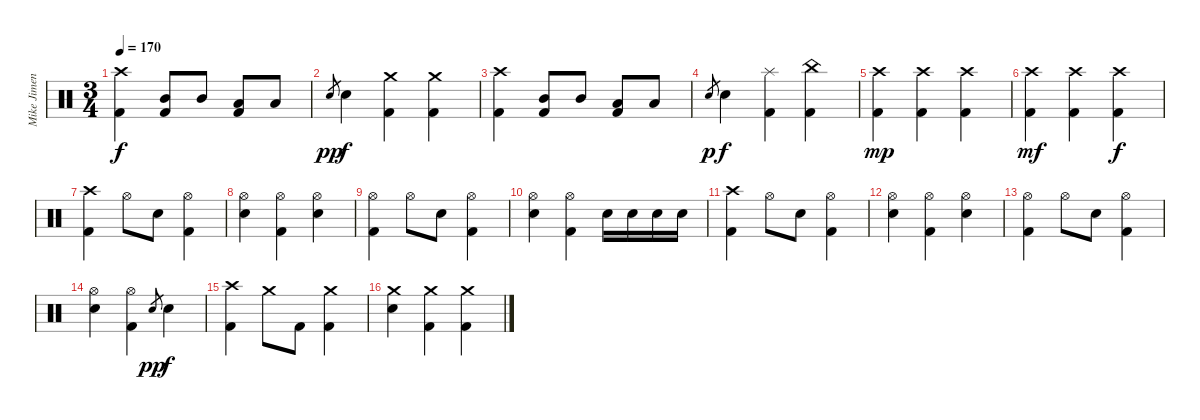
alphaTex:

\track ("Mike Jimenez" "Mike Jimen") {instrument percussion}
\staff {score}
\articulation defaults
\ts (3 4)
\tempo 170
\clef neutral
\ks c
("Crash high (hit)" "Kick (hit) 2").4{dy f} ("Mid Tom (hit)" "Kick (hit) 2").8 "Mid Tom (hit)".8 ("Low Tom (hit)" "Kick (hit) 2").8 "Low Tom (hit)".8 |
"Electric Snare (hit)".8{gr dy pp} "Electric Snare (hit)".4{dy f} ("Crash medium (hit)" "Kick (hit) 2").4 ("Crash medium (hit)" "Kick (hit) 2").4 |
("Crash high (hit)" "Kick (hit) 2").4 ("Mid Tom (hit)" "Kick (hit) 2").8 "Mid Tom (hit)".8 ("Low Tom (hit)" "Kick (hit) 2").8 "Low Tom (hit)".8 |
"Electric Snare (hit)".8{gr dy p} "Electric Snare (hit)".4{dy f} ("Splash (hit)" "Kick (hit) 2").4 ("China (hit)" "Kick (hit) 2").4 |
("Crash high (hit)" "Kick (hit) 2").4{dy mp} ("Crash high (hit)" "Kick (hit) 2").4 ("Crash high (hit)" "Kick (hit) 2").4 |
("Crash high (hit)" "Kick (hit) 2").4{dy mf} ("Crash high (hit)" "Kick (hit) 2").4 ("Crash high (hit)" "Kick (hit) 2").4{dy f} |
("Crash high (hit)" "Kick (hit) 2").4 "Hi-Hat (open)".8 "Electric Snare (hit)".8 ("Hi-Hat (open)" "Kick (hit) 2").4 |
("Hi-Hat (open)" "Electric Snare (hit)").4 ("Hi-Hat (open)" "Kick (hit) 2").4 ("Hi-Hat (open)" "Electric Snare (hit)").4 |
("Hi-Hat (open)" "Kick (hit) 2").4 "Hi-Hat (open)".8 "Electric Snare (hit)".8 ("Hi-Hat (open)" "Kick (hit) 2").4 |
("Hi-Hat (open)" "Electric Snare (hit)").4 ("Hi-Hat (open)" "Kick (hit) 2").4 "Electric Snare (hit)".16 "Electric Snare (hit)".16 "Electric Snare (hit)".16 "Electric Snare (hit)".16 |
("Crash high (hit)" "Kick (hit) 2").4 "Hi-Hat (open)".8 "Electric Snare (hit)".8 ("Hi-Hat (open)" "Kick (hit) 2").4 |
("Hi-Hat (open)" "Electric Snare (hit)").4 ("Hi-Hat (open)" "Kick (hit) 2").4 ("Hi-Hat (open)" "Electric Snare (hit)").4 |
("Hi-Hat (open)" "Kick (hit) 2").4 "Hi-Hat (open)".8 "Electric Snare (hit)".8 ("Hi-Hat (open)" "Kick (hit) 2").4 |
("Hi-Hat (open)" "Electric Snare (hit)").4 ("Hi-Hat (open)" "Kick (hit) 2").4 "Electric Snare (hit)".8{gr dy pp} "Electric Snare (hit)".4{dy f} |
("Crash high (hit)" "Kick (hit) 2").4 "Crash medium (hit)".8 "Kick (hit) 2".8 ("Crash medium (hit)" "Kick (hit) 2").4 |
("Crash medium (hit)" "Electric Snare (hit)").4 ("Crash medium (hit)" "Kick (hit) 2").4 ("Crash medium (hit)" "Kick (hit) 2").4
